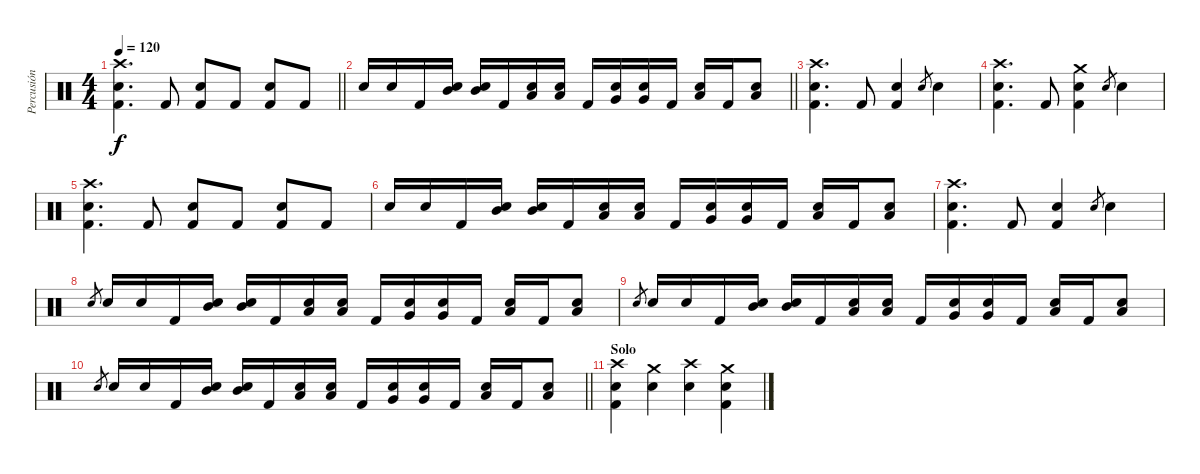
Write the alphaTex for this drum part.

\track ("Percusión" "Percusión") {instrument percussion}
\staff {score}
\articulation defaults
\ts (4 4)
\tempo 120
\clef neutral
\barLineRight lightlight
\ks c
("Crash high (hit)" "Electric Snare (hit)" "Kick (hit) 2").4{d dy f} "Kick (hit) 2".8 ("Electric Snare (hit)" "Kick (hit) 2").8 "Kick (hit) 2".8 ("Electric Snare (hit)" "Kick (hit) 2").8 "Kick (hit) 2".8 |
\barLineRight lightlight "Electric Snare (hit)".16 "Electric Snare (hit)".16 "Kick (hit) 2".16
("Electric Snare (hit)" "Mid Tom (hit)").16 ("Electric Snare (hit)" "Mid Tom (hit)").16 "Kick (hit) 2".16 ("Electric Snare (hit)" "Low Tom (hit)").16 ("Electric Snare (hit)" "Low Tom (hit)").16 "Kick (hit) 2".16 ("Electric Snare (hit)" "Very Low Tom (hit)").16 ("Electric Snare (hit)" "Very Low Tom (hit)").16 "Kick (hit) 2".16 ("Electric Snare (hit)" "Low Floor Tom (hit)").16 "Kick (hit) 2".16 ("Electric Snare (hit)" "Low Floor Tom (hit)").8 |
("Crash high (hit)" "Electric Snare (hit)" "Kick (hit) 2").4{d} "Kick (hit) 2".8 ("Electric Snare (hit)" "Kick (hit) 2").4 "Electric Snare (hit)".8{gr} "Electric Snare (hit)".4 |
("Crash high (hit)" "Electric Snare (hit)" "Kick (hit) 2").4{d} "Kick (hit) 2".8 ("Crash medium (hit)" "Electric Snare (hit)" "Kick (hit) 2").4 "Electric Snare (hit)".8{gr} "Electric Snare (hit)".4 |
("Crash high (hit)" "Electric Snare (hit)" "Kick (hit) 2").4{d} "Kick (hit) 2".8 ("Electric Snare (hit)" "Kick (hit) 2").8 "Kick (hit) 2".8 ("Electric Snare (hit)" "Kick (hit) 2").8 "Kick (hit) 2".8 |
"Electric Snare (hit)".16 "Electric Snare (hit)".16 "Kick (hit) 2".16 ("Electric Snare (hit)" "Mid Tom (hit)").16 ("Electric Snare (hit)" "Mid Tom (hit)").16 "Kick (hit) 2".16 ("Electric Snare (hit)" "Low Tom (hit)").16 ("Electric Snare (hit)" "Low Tom (hit)").16 "Kick (hit) 2".16 ("Electric Snare (hit)" "Very Low Tom (hit)").16 ("Electric Snare (hit)" "Very Low Tom (hit)").16 "Kick (hit) 2".16 ("Electric Snare (hit)" "Low Floor Tom (hit)").16 "Kick (hit) 2".16 ("Electric Snare (hit)" "Low Floor Tom (hit)").8 |
("Crash high (hit)" "Electric Snare (hit)" "Kick (hit) 2").4{d} "Kick (hit) 2".8 ("Electric Snare (hit)" "Kick (hit) 2").4 "Electric Snare (hit)".8{gr} "Electric Snare (hit)".4 |
"Electric Snare (hit)".8{gr} "Electric Snare (hit)".16 "Electric Snare (hit)".16 "Kick (hit) 2".16 ("Electric Snare (hit)" "Mid Tom (hit)").16 ("Electric Snare (hit)" "Mid Tom (hit)").16 "Kick (hit) 2".16 ("Electric Snare (hit)" "Low Tom (hit)").16 ("Electric Snare (hit)" "Low Tom (hit)").16 "Kick (hit) 2".16 ("Electric Snare (hit)" "Very Low Tom (hit)").16 ("Electric Snare (hit)" "Very Low Tom (hit)").16 "Kick (hit) 2".16 ("Electric Snare (hit)" "Low Floor Tom (hit)").16 "Kick (hit) 2".16 ("Electric Snare (hit)" "Low Floor Tom (hit)").8 |
"Electric Snare (hit)".8{gr} "Electric Snare (hit)".16 "Electric Snare (hit)".16 "Kick (hit) 2".16 ("Electric Snare (hit)" "Mid Tom (hit)").16 ("Electric Snare (hit)" "Mid Tom (hit)").16 "Kick (hit) 2".16 ("Electric Snare (hit)" "Low Tom (hit)").16 ("Electric Snare (hit)" "Low Tom (hit)").16 "Kick (hit) 2".16 ("Electric Snare (hit)" "Very Low Tom (hit)").16 ("Electric Snare (hit)" "Very Low Tom (hit)").16 "Kick (hit) 2".16 ("Electric Snare (hit)" "Low Floor Tom (hit)").16 "Kick (hit) 2".16 ("Electric Snare (hit)" "Low Floor Tom (hit)").8 |
\barLineRight lightlight "Electric Snare (hit)".8{gr} "Electric Snare (hit)".16 "Electric Snare (hit)".16 "Kick (hit) 2".16
("Electric Snare (hit)" "Mid Tom (hit)").16 ("Electric Snare (hit)" "Mid Tom (hit)").16 "Kick (hit) 2".16 ("Electric Snare (hit)" "Low Tom (hit)").16 ("Electric Snare (hit)" "Low Tom (hit)").16 "Kick (hit) 2".16 ("Electric Snare (hit)" "Very Low Tom (hit)").16 ("Electric Snare (hit)" "Very Low Tom (hit)").16 "Kick (hit) 2".16 ("Electric Snare (hit)" "Low Floor Tom (hit)").16 "Kick (hit) 2".16 ("Electric Snare (hit)" "Low Floor Tom (hit)").8 |
\section ("" "Solo")
("Crash high (hit)" "Electric Snare (hit)" "Kick (hit) 2").4 ("Crash medium (hit)" "Electric Snare (hit)").4 ("Crash high (hit)" "Electric Snare (hit)").4 ("Crash medium (hit)" "Electric Snare (hit)" "Kick (hit) 2").4
